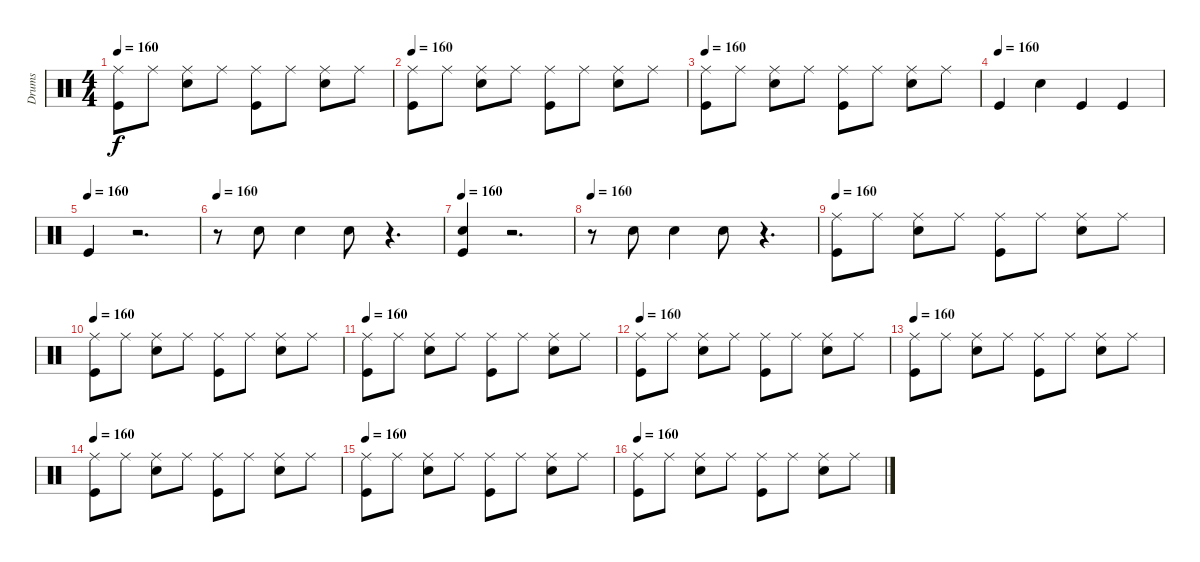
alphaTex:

\track ("Drums" "Drums") {instrument percussion}
\staff {score}
\articulation defaults
\ts (4 4)
\tempo 160
\clef neutral
\ks c
("Ride (middle)" "Kick (hit)").8{dy f} "Ride (middle)".8 ("Ride (middle)" "Snare (hit) 2").8 "Ride (middle)".8 ("Ride (middle)" "Kick (hit)").8 "Ride (middle)".8 ("Ride (middle)" "Snare (hit) 2").8 "Ride (middle)".8 |
\tempo 160
("Ride (middle)" "Kick (hit)").8 "Ride (middle)".8 ("Ride (middle)" "Snare (hit) 2").8 "Ride (middle)".8 ("Ride (middle)" "Kick (hit)").8 "Ride (middle)".8 ("Ride (middle)" "Snare (hit) 2").8 "Ride (middle)".8 |
\tempo 160
("Ride (middle)" "Kick (hit)").8 "Ride (middle)".8 ("Ride (middle)" "Snare (hit) 2").8 "Ride (middle)".8 ("Ride (middle)" "Kick (hit)").8 "Ride (middle)".8 ("Ride (middle)" "Snare (hit) 2").8 "Ride (middle)".8 |
\tempo (160)
"Kick (hit)".4 "Snare (hit) 2".4 "Kick (hit)".4 "Kick (hit)".4 |
\tempo (160)
"Kick (hit)".4 r.2{d} |
\tempo 160
r.8 "Snare (hit) 2".8 "Snare (hit) 2".4 "Snare (hit) 2".8 r.4{d} |
\tempo 160
("Kick (hit)" "Snare (hit) 2").4 r.2{d} |
\tempo 160
r.8 "Snare (hit) 2".8 "Snare (hit) 2".4 "Snare (hit) 2".8 r.4{d} |
\tempo 160
("Ride (middle)" "Kick (hit)").8 "Ride (middle)".8 ("Ride (middle)" "Snare (hit) 2").8 "Ride (middle)".8 ("Ride (middle)" "Kick (hit)").8 "Ride (middle)".8 ("Ride (middle)" "Snare (hit) 2").8 "Ride (middle)".8 |
\tempo 160
("Ride (middle)" "Kick (hit)").8 "Ride (middle)".8 ("Ride (middle)" "Snare (hit) 2").8 "Ride (middle)".8 ("Ride (middle)" "Kick (hit)").8 "Ride (middle)".8 ("Ride (middle)" "Snare (hit) 2").8 "Ride (middle)".8 |
\tempo 160
("Ride (middle)" "Kick (hit)").8 "Ride (middle)".8 ("Ride (middle)" "Snare (hit) 2").8 "Ride (middle)".8 ("Ride (middle)" "Kick (hit)").8 "Ride (middle)".8 ("Ride (middle)" "Snare (hit) 2").8 "Ride (middle)".8 |
\tempo 160
("Ride (middle)" "Kick (hit)").8 "Ride (middle)".8 ("Ride (middle)" "Snare (hit) 2").8 "Ride (middle)".8 ("Ride (middle)" "Kick (hit)").8 "Ride (middle)".8 ("Ride (middle)" "Snare (hit) 2").8 "Ride (middle)".8 |
\tempo 160
("Ride (middle)" "Kick (hit)").8 "Ride (middle)".8 ("Ride (middle)" "Snare (hit) 2").8 "Ride (middle)".8 ("Ride (middle)" "Kick (hit)").8 "Ride (middle)".8 ("Ride (middle)" "Snare (hit) 2").8 "Ride (middle)".8 |
\tempo 160
("Ride (middle)" "Kick (hit)").8 "Ride (middle)".8 ("Ride (middle)" "Snare (hit) 2").8 "Ride (middle)".8 ("Ride (middle)" "Kick (hit)").8 "Ride (middle)".8 ("Ride (middle)" "Snare (hit) 2").8 "Ride (middle)".8 |
\tempo 160
("Ride (middle)" "Kick (hit)").8 "Ride (middle)".8 ("Ride (middle)" "Snare (hit) 2").8 "Ride (middle)".8 ("Ride (middle)" "Kick (hit)").8 "Ride (middle)".8 ("Ride (middle)" "Snare (hit) 2").8 "Ride (middle)".8 |
\tempo 160
("Ride (middle)" "Kick (hit)").8 "Ride (middle)".8 ("Ride (middle)" "Snare (hit) 2").8 "Ride (middle)".8 ("Ride (middle)" "Kick (hit)").8 "Ride (middle)".8 ("Ride (middle)" "Snare (hit) 2").8 "Ride (middle)".8
